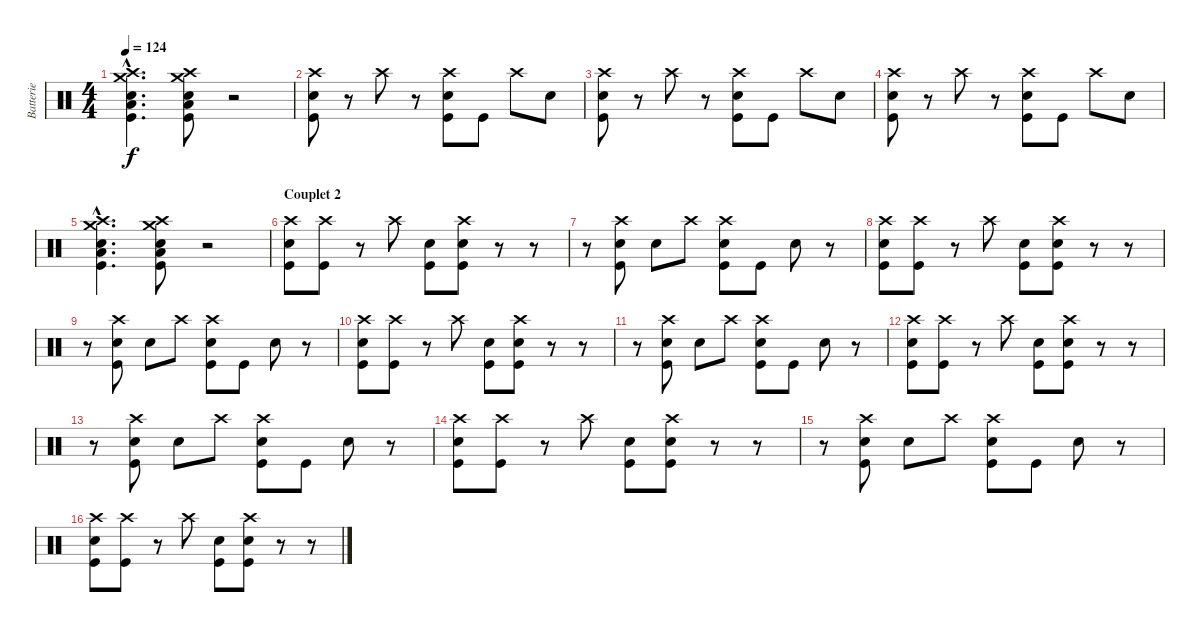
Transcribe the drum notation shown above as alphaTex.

\track ("Batterie" "Batterie") {instrument percussion}
\staff {score}
\articulation defaults
\ts (4 4)
\tempo 124
\clef neutral
\ks c
("Crash high (hit)"{hac} "Crash medium (hit)"{hac} "Snare (hit) 2"{hac} "Low Tom (hit)"{hac} "Kick (hit)"{hac}).4{d dy f} ("Crash high (hit)" "Crash medium (hit)" "Snare (hit) 2" "Low Tom (hit)" "Kick (hit)").8 r.2 |
("Crash high (hit)" "Snare (hit) 2" "Kick (hit)").8 r.8 "Crash high (hit)".8 r.8 ("Crash high (hit)" "Snare (hit) 2" "Kick (hit)").8 "Kick (hit)".8 "Crash high (hit)".8 "Snare (hit) 2".8 |
("Crash high (hit)" "Snare (hit) 2" "Kick (hit)").8 r.8 "Crash high (hit)".8 r.8 ("Crash high (hit)" "Snare (hit) 2" "Kick (hit)").8 "Kick (hit)".8 "Crash high (hit)".8 "Snare (hit) 2".8 |
("Crash high (hit)" "Snare (hit) 2" "Kick (hit)").8 r.8 "Crash high (hit)".8 r.8 ("Crash high (hit)" "Snare (hit) 2" "Kick (hit)").8 "Kick (hit)".8 "Crash high (hit)".8 "Snare (hit) 2".8 |
("Crash high (hit)"{hac} "Crash medium (hit)"{hac} "Snare (hit) 2"{hac} "Low Tom (hit)"{hac} "Kick (hit)"{hac}).4{d} ("Crash high (hit)" "Crash medium (hit)" "Snare (hit) 2" "Low Tom (hit)" "Kick (hit)").8 r.2 |
\section ("" "Couplet 2")
("Crash high (hit)" "Snare (hit) 2" "Kick (hit)").8 ("Crash high (hit)" "Kick (hit)").8 r.8 "Crash high (hit)".8 ("Snare (hit) 2" "Kick (hit)").8 ("Crash high (hit)" "Snare (hit) 2" "Kick (hit)").8 r.8 r.8 |
r.8 ("Crash high (hit)" "Snare (hit) 2" "Kick (hit)").8 "Snare (hit) 2".8 "Crash high (hit)".8 ("Crash high (hit)" "Snare (hit) 2" "Kick (hit)").8 "Kick (hit)".8 "Snare (hit) 2".8 r.8 |
("Crash high (hit)" "Snare (hit) 2" "Kick (hit)").8 ("Crash high (hit)" "Kick (hit)").8 r.8 "Crash high (hit)".8 ("Snare (hit) 2" "Kick (hit)").8 ("Crash high (hit)" "Snare (hit) 2" "Kick (hit)").8 r.8 r.8 |
r.8 ("Crash high (hit)" "Snare (hit) 2" "Kick (hit)").8 "Snare (hit) 2".8 "Crash high (hit)".8 ("Crash high (hit)" "Snare (hit) 2" "Kick (hit)").8 "Kick (hit)".8 "Snare (hit) 2".8 r.8 |
("Crash high (hit)" "Snare (hit) 2" "Kick (hit)").8 ("Crash high (hit)" "Kick (hit)").8 r.8 "Crash high (hit)".8 ("Snare (hit) 2" "Kick (hit)").8 ("Crash high (hit)" "Snare (hit) 2" "Kick (hit)").8 r.8 r.8 |
r.8 ("Crash high (hit)" "Snare (hit) 2" "Kick (hit)").8 "Snare (hit) 2".8 "Crash high (hit)".8 ("Crash high (hit)" "Snare (hit) 2" "Kick (hit)").8 "Kick (hit)".8 "Snare (hit) 2".8 r.8 |
("Crash high (hit)" "Snare (hit) 2" "Kick (hit)").8 ("Crash high (hit)" "Kick (hit)").8 r.8 "Crash high (hit)".8 ("Snare (hit) 2" "Kick (hit)").8 ("Crash high (hit)" "Snare (hit) 2" "Kick (hit)").8 r.8 r.8 |
r.8 ("Crash high (hit)" "Snare (hit) 2" "Kick (hit)").8 "Snare (hit) 2".8 "Crash high (hit)".8 ("Crash high (hit)" "Snare (hit) 2" "Kick (hit)").8 "Kick (hit)".8 "Snare (hit) 2".8 r.8 |
("Crash high (hit)" "Snare (hit) 2" "Kick (hit)").8 ("Crash high (hit)" "Kick (hit)").8 r.8 "Crash high (hit)".8 ("Snare (hit) 2" "Kick (hit)").8 ("Crash high (hit)" "Snare (hit) 2" "Kick (hit)").8 r.8 r.8 |
r.8 ("Crash high (hit)" "Snare (hit) 2" "Kick (hit)").8 "Snare (hit) 2".8 "Crash high (hit)".8 ("Crash high (hit)" "Snare (hit) 2" "Kick (hit)").8 "Kick (hit)".8 "Snare (hit) 2".8 r.8 |
("Crash high (hit)" "Snare (hit) 2" "Kick (hit)").8 ("Crash high (hit)" "Kick (hit)").8 r.8 "Crash high (hit)".8 ("Snare (hit) 2" "Kick (hit)").8 ("Crash high (hit)" "Snare (hit) 2" "Kick (hit)").8 r.8 r.8
